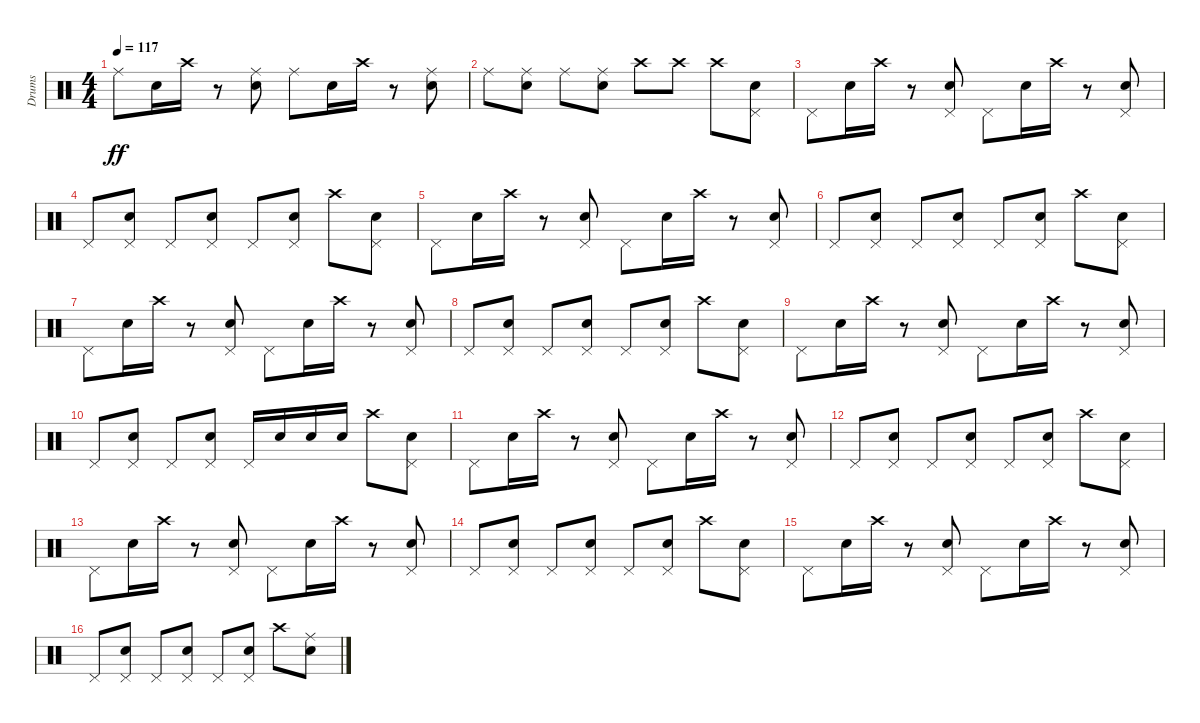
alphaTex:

\track ("Drums" "Drums") {instrument percussion}
\staff {score}
\articulation defaults
\ts (4 4)
\tempo 117
\clef neutral
\ks c "Ride (middle)".8{dy ff} "Snare (hit) 2".16 "Crash high (hit)".16
r.8 ("Snare (hit) 2" "Ride (middle)").8 "Ride (middle)".8 "Snare (hit) 2".16 "Crash high (hit)".16 r.8 ("Snare (hit) 2" "Ride (middle)").8 |
"Ride (middle)".8 ("Snare (hit) 2" "Ride (middle)").8 "Ride (middle)".8 ("Snare (hit) 2" "Ride (middle)").8 "Crash high (hit)".8 "Crash high (hit)".8 "Crash high (hit)".8 ("Snare (hit) 2" "Pedal Hi-Hat (hit)").8 |
"Pedal Hi-Hat (hit)".8 "Snare (hit) 2".16 "Crash high (hit)".16 r.8 ("Snare (hit) 2" "Pedal Hi-Hat (hit)").8 "Pedal Hi-Hat (hit)".8 "Snare (hit) 2".16 "Crash high (hit)".16 r.8 ("Snare (hit) 2" "Pedal Hi-Hat (hit)").8 |
"Pedal Hi-Hat (hit)".8 ("Snare (hit) 2" "Pedal Hi-Hat (hit)").8 "Pedal Hi-Hat (hit)".8 ("Snare (hit) 2" "Pedal Hi-Hat (hit)").8 "Pedal Hi-Hat (hit)".8 ("Snare (hit) 2" "Pedal Hi-Hat (hit)").8 "Crash high (hit)".8 ("Snare (hit) 2" "Pedal Hi-Hat (hit)").8 |
"Pedal Hi-Hat (hit)".8 "Snare (hit) 2".16 "Crash high (hit)".16 r.8 ("Snare (hit) 2" "Pedal Hi-Hat (hit)").8 "Pedal Hi-Hat (hit)".8 "Snare (hit) 2".16 "Crash high (hit)".16 r.8 ("Snare (hit) 2" "Pedal Hi-Hat (hit)").8 |
"Pedal Hi-Hat (hit)".8 ("Snare (hit) 2" "Pedal Hi-Hat (hit)").8 "Pedal Hi-Hat (hit)".8 ("Snare (hit) 2" "Pedal Hi-Hat (hit)").8 "Pedal Hi-Hat (hit)".8 ("Snare (hit) 2" "Pedal Hi-Hat (hit)").8 "Crash high (hit)".8 ("Snare (hit) 2" "Pedal Hi-Hat (hit)").8 |
"Pedal Hi-Hat (hit)".8 "Snare (hit) 2".16 "Crash high (hit)".16 r.8 ("Snare (hit) 2" "Pedal Hi-Hat (hit)").8 "Pedal Hi-Hat (hit)".8 "Snare (hit) 2".16 "Crash high (hit)".16 r.8 ("Snare (hit) 2" "Pedal Hi-Hat (hit)").8 |
"Pedal Hi-Hat (hit)".8 ("Snare (hit) 2" "Pedal Hi-Hat (hit)").8 "Pedal Hi-Hat (hit)".8 ("Snare (hit) 2" "Pedal Hi-Hat (hit)").8 "Pedal Hi-Hat (hit)".8 ("Snare (hit) 2" "Pedal Hi-Hat (hit)").8 "Crash high (hit)".8 ("Snare (hit) 2" "Pedal Hi-Hat (hit)").8 |
"Pedal Hi-Hat (hit)".8 "Snare (hit) 2".16 "Crash high (hit)".16 r.8 ("Snare (hit) 2" "Pedal Hi-Hat (hit)").8 "Pedal Hi-Hat (hit)".8 "Snare (hit) 2".16 "Crash high (hit)".16 r.8 ("Snare (hit) 2" "Pedal Hi-Hat (hit)").8 |
"Pedal Hi-Hat (hit)".8 ("Snare (hit) 2" "Pedal Hi-Hat (hit)").8 "Pedal Hi-Hat (hit)".8 ("Snare (hit) 2" "Pedal Hi-Hat (hit)").8 "Pedal Hi-Hat (hit)".16 "Snare (hit) 2".16 "Snare (hit) 2".16 "Snare (hit) 2".16 "Crash high (hit)".8 ("Snare (hit) 2" "Pedal Hi-Hat (hit)").8 |
"Pedal Hi-Hat (hit)".8 "Snare (hit) 2".16 "Crash high (hit)".16 r.8 ("Snare (hit) 2" "Pedal Hi-Hat (hit)").8 "Pedal Hi-Hat (hit)".8 "Snare (hit) 2".16 "Crash high (hit)".16 r.8 ("Snare (hit) 2" "Pedal Hi-Hat (hit)").8 |
"Pedal Hi-Hat (hit)".8 ("Snare (hit) 2" "Pedal Hi-Hat (hit)").8 "Pedal Hi-Hat (hit)".8 ("Snare (hit) 2" "Pedal Hi-Hat (hit)").8 "Pedal Hi-Hat (hit)".8 ("Snare (hit) 2" "Pedal Hi-Hat (hit)").8 "Crash high (hit)".8 ("Snare (hit) 2" "Pedal Hi-Hat (hit)").8 |
"Pedal Hi-Hat (hit)".8 "Snare (hit) 2".16 "Crash high (hit)".16 r.8 ("Snare (hit) 2" "Pedal Hi-Hat (hit)").8 "Pedal Hi-Hat (hit)".8 "Snare (hit) 2".16 "Crash high (hit)".16 r.8 ("Snare (hit) 2" "Pedal Hi-Hat (hit)").8 |
"Pedal Hi-Hat (hit)".8 ("Snare (hit) 2" "Pedal Hi-Hat (hit)").8 "Pedal Hi-Hat (hit)".8 ("Snare (hit) 2" "Pedal Hi-Hat (hit)").8 "Pedal Hi-Hat (hit)".8 ("Snare (hit) 2" "Pedal Hi-Hat (hit)").8 "Crash high (hit)".8 ("Snare (hit) 2" "Pedal Hi-Hat (hit)").8 |
"Pedal Hi-Hat (hit)".8 "Snare (hit) 2".16 "Crash high (hit)".16 r.8 ("Snare (hit) 2" "Pedal Hi-Hat (hit)").8 "Pedal Hi-Hat (hit)".8 "Snare (hit) 2".16 "Crash high (hit)".16 r.8 ("Snare (hit) 2" "Pedal Hi-Hat (hit)").8 |
"Pedal Hi-Hat (hit)".8 ("Snare (hit) 2" "Pedal Hi-Hat (hit)").8 "Pedal Hi-Hat (hit)".8 ("Snare (hit) 2" "Pedal Hi-Hat (hit)").8 "Pedal Hi-Hat (hit)".8 ("Snare (hit) 2" "Pedal Hi-Hat (hit)").8 "Crash high (hit)".8 ("Snare (hit) 2" "Ride (middle)").8
